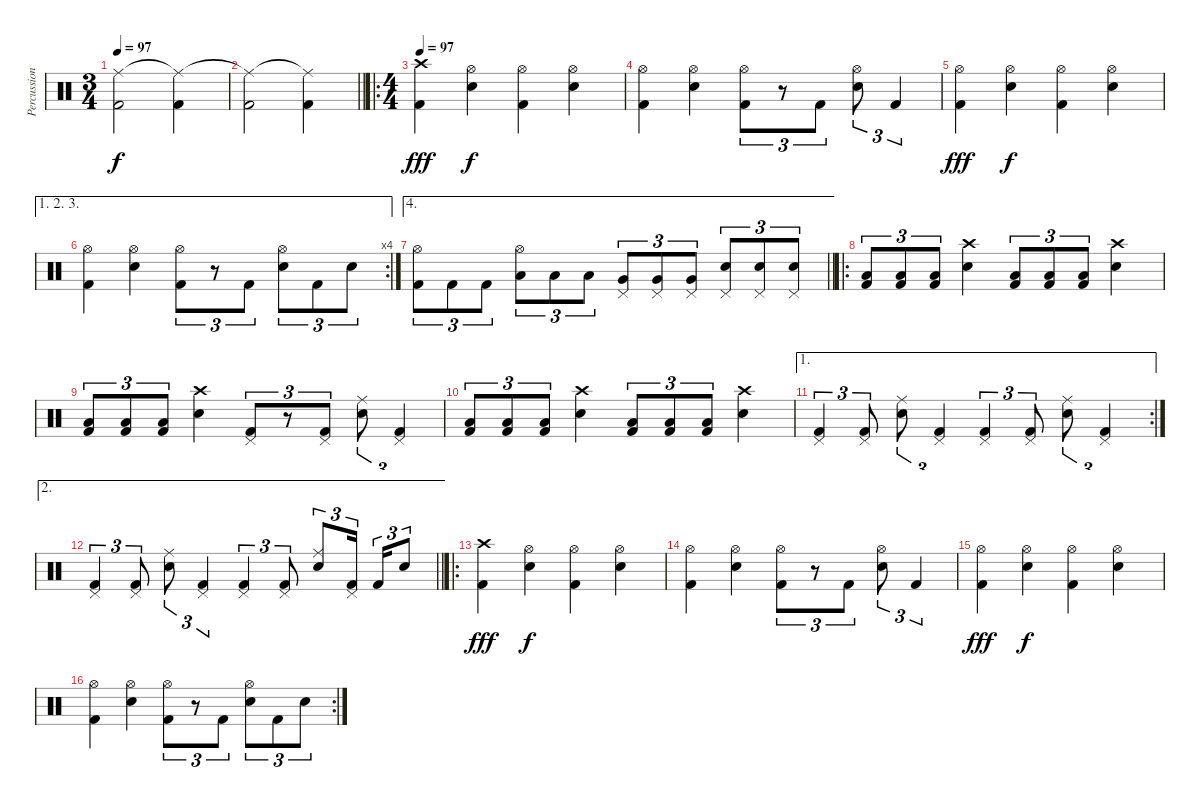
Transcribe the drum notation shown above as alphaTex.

\track ("Percussion" "Percussion") {instrument percussion}
\staff {score}
\articulation defaults
\ts (3 4)
\tempo 97
\clef neutral
\ks c
("Ride (middle)"{t} "Kick (hit) 2").2{dy f} ("Ride (middle)"{t} "Kick (hit) 2").4{volume 9} |
\barLineRight lightlight
("Ride (middle)"{t} "Kick (hit) 2").2{volume 11} ("Ride (middle)"{t} "Kick (hit) 2").4{volume 13} |
\ro
\ts (4 4)
\tempo 97
("Crash high (hit)" "Kick (hit) 2").4{dy fff} ("Hi-Hat (open)" "Snare (hit) 2").4{dy f} ("Hi-Hat (open)" "Kick (hit) 2").4 ("Hi-Hat (open)" "Snare (hit) 2").4 |
("Hi-Hat (open)" "Kick (hit) 2").4 ("Hi-Hat (open)" "Snare (hit) 2").4 ("Hi-Hat (open)" "Kick (hit) 2").8{tu (3 2)} r.8{tu (3 2)} "Kick (hit) 2".8{tu (3 2)} ("Hi-Hat (open)" "Snare (hit) 2").8{tu (3 2)} "Kick (hit) 2".4{tu (3 2)} |
("Hi-Hat (open)" "Kick (hit) 2").4{dy fff} ("Hi-Hat (open)" "Snare (hit) 2").4{dy f} ("Hi-Hat (open)" "Kick (hit) 2").4 ("Hi-Hat (open)" "Snare (hit) 2").4 |
\ae (1 2 3)
\rc 4
("Hi-Hat (open)" "Kick (hit) 2").4 ("Hi-Hat (open)" "Snare (hit) 2").4 ("Hi-Hat (open)" "Kick (hit) 2").8{tu (3 2)} r.8{tu (3 2)} "Kick (hit) 2".8{tu (3 2)} ("Hi-Hat (open)" "Snare (hit) 2").8{tu (3 2)} "Kick (hit) 2".8{tu (3 2)} "Snare (hit) 2".8{tu (3 2)} |
\ae 4
\barLineRight lightlight
("Hi-Hat (open)" "Kick (hit) 2").8{tu (3 2)} "Kick (hit) 2".8{tu (3 2)} "Kick (hit) 2".8{tu (3 2)} ("Hi-Hat (open)" "Low Tom (hit)").8{tu (3 2)} "Low Tom (hit)".8{tu (3 2)} "Low Tom (hit)".8{tu (3 2)} ("Pedal Hi-Hat (hit)" "Very Low Tom (hit)").8{tu (3 2)} ("Pedal Hi-Hat (hit)" "Very Low Tom (hit)").8{tu (3 2)} ("Pedal Hi-Hat (hit)" "Very Low Tom (hit)").8{tu (3 2)} ("Pedal Hi-Hat (hit)" "Snare (hit) 2").8{tu (3 2)} ("Pedal Hi-Hat (hit)" "Snare (hit) 2").8{tu (3 2)} ("Pedal Hi-Hat (hit)" "Snare (hit) 2").8{tu (3 2)} |
\ro
("Low Floor Tom (hit)" "Kick (hit) 2").8{tu (3 2)} ("Low Floor Tom (hit)" "Kick (hit) 2").8{tu (3 2)} ("Low Floor Tom (hit)" "Kick (hit) 2").8{tu (3 2)} ("Crash high (hit)" "Snare (hit) 2").4 ("Low Floor Tom (hit)" "Kick (hit) 2").8{tu (3 2)} ("Low Floor Tom (hit)" "Kick (hit) 2").8{tu (3 2)} ("Low Floor Tom (hit)" "Kick (hit) 2").8{tu (3 2)} ("Crash high (hit)" "Snare (hit) 2").4 |
("Low Floor Tom (hit)" "Kick (hit) 2").8{tu (3 2)} ("Low Floor Tom (hit)" "Kick (hit) 2").8{tu (3 2)} ("Low Floor Tom (hit)" "Kick (hit) 2").8{tu (3 2)} ("Crash high (hit)" "Snare (hit) 2").4 ("Pedal Hi-Hat (hit)" "Kick (hit) 2").8{tu (3 2)} r.8{tu (3 2)} ("Pedal Hi-Hat (hit)" "Kick (hit) 2").8{tu (3 2)} ("Ride (middle)" "Snare (hit) 2").8{tu (3 2)} ("Pedal Hi-Hat (hit)" "Kick (hit) 2").4{tu (3 2)} |
("Low Floor Tom (hit)" "Kick (hit) 2").8{tu (3 2)} ("Low Floor Tom (hit)" "Kick (hit) 2").8{tu (3 2)} ("Low Floor Tom (hit)" "Kick (hit) 2").8{tu (3 2)} ("Crash high (hit)" "Snare (hit) 2").4 ("Low Floor Tom (hit)" "Kick (hit) 2").8{tu (3 2)} ("Low Floor Tom (hit)" "Kick (hit) 2").8{tu (3 2)} ("Low Floor Tom (hit)" "Kick (hit) 2").8{tu (3 2)} ("Crash high (hit)" "Snare (hit) 2").4 |
\ae 1
\rc 2
("Pedal Hi-Hat (hit)" "Kick (hit) 2").4{tu (3 2)} ("Pedal Hi-Hat (hit)" "Kick (hit) 2").8{tu (3 2)} ("Ride (middle)" "Snare (hit) 2").8{tu (3 2)} ("Pedal Hi-Hat (hit)" "Kick (hit) 2").4{tu (3 2)} ("Pedal Hi-Hat (hit)" "Kick (hit) 2").4{tu (3 2)} ("Pedal Hi-Hat (hit)" "Kick (hit) 2").8{tu (3 2)} ("Ride (middle)" "Snare (hit) 2").8{tu (3 2)} ("Pedal Hi-Hat (hit)" "Kick (hit) 2").4{tu (3 2)} |
\ae 2
\barLineRight lightlight
("Pedal Hi-Hat (hit)" "Kick (hit) 2").4{tu (3 2)} ("Pedal Hi-Hat (hit)" "Kick (hit) 2").8{tu (3 2)} ("Ride (middle)" "Snare (hit) 2").8{tu (3 2)} ("Pedal Hi-Hat (hit)" "Kick (hit) 2").4{tu (3 2)} ("Pedal Hi-Hat (hit)" "Kick (hit) 2").4{tu (3 2)} ("Pedal Hi-Hat (hit)" "Kick (hit) 2").8{tu (3 2)} ("Ride (middle)" "Snare (hit) 2").8{tu (3 2)} ("Pedal Hi-Hat (hit)" "Kick (hit) 2").16{tu (3 2)} "Kick (hit) 2".16{tu (3 2)} "Snare (hit) 2".8{tu (3 2)} |
\ro
("Crash high (hit)" "Kick (hit) 2").4{dy fff} ("Hi-Hat (open)" "Snare (hit) 2").4{dy f} ("Hi-Hat (open)" "Kick (hit) 2").4 ("Hi-Hat (open)" "Snare (hit) 2").4 |
("Hi-Hat (open)" "Kick (hit) 2").4 ("Hi-Hat (open)" "Snare (hit) 2").4 ("Hi-Hat (open)" "Kick (hit) 2").8{tu (3 2)} r.8{tu (3 2)} "Kick (hit) 2".8{tu (3 2)} ("Hi-Hat (open)" "Snare (hit) 2").8{tu (3 2)} "Kick (hit) 2".4{tu (3 2)} |
("Hi-Hat (open)" "Kick (hit) 2").4{dy fff} ("Hi-Hat (open)" "Snare (hit) 2").4{dy f} ("Hi-Hat (open)" "Kick (hit) 2").4 ("Hi-Hat (open)" "Snare (hit) 2").4 |
\rc 2
("Hi-Hat (open)" "Kick (hit) 2").4 ("Hi-Hat (open)" "Snare (hit) 2").4 ("Hi-Hat (open)" "Kick (hit) 2").8{tu (3 2)} r.8{tu (3 2)} "Kick (hit) 2".8{tu (3 2)} ("Hi-Hat (open)" "Snare (hit) 2").8{tu (3 2)} "Kick (hit) 2".8{tu (3 2)} "Snare (hit) 2".8{tu (3 2)}
